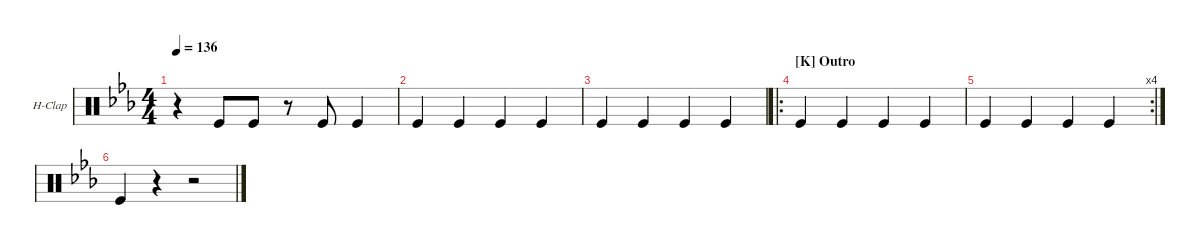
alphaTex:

\defaultSystemsLayout 4
\hideDynamics
\bracketExtendMode groupsimilarinstruments
\firstSystemTrackNameOrientation horizontal
\otherSystemsTrackNameOrientation horizontal
\track ("Hand Clap" "H-Clap") {multiBarRest instrument percussion}
\staff {score}
\articulation defaults
\ts (4 4)
\tempo 136
\clef neutral
\ks eb
r.4{dy mf} "Kick (hit)".8 "Kick (hit)".8 r.8 "Kick (hit)".8 "Kick (hit)".4 |
"Kick (hit)".4 "Kick (hit)".4 "Kick (hit)".4 "Kick (hit)".4 |
"Kick (hit)".4 "Kick (hit)".4 "Kick (hit)".4 "Kick (hit)".4 |
\ro
\section ("K" "Outro")
"Kick (hit)".4 "Kick (hit)".4 "Kick (hit)".4 "Kick (hit)".4 |
\rc 4 "Kick (hit)".4 "Kick (hit)".4 "Kick (hit)".4 "Kick (hit)".4
|
"Kick (hit)".4 r.4 r.2
